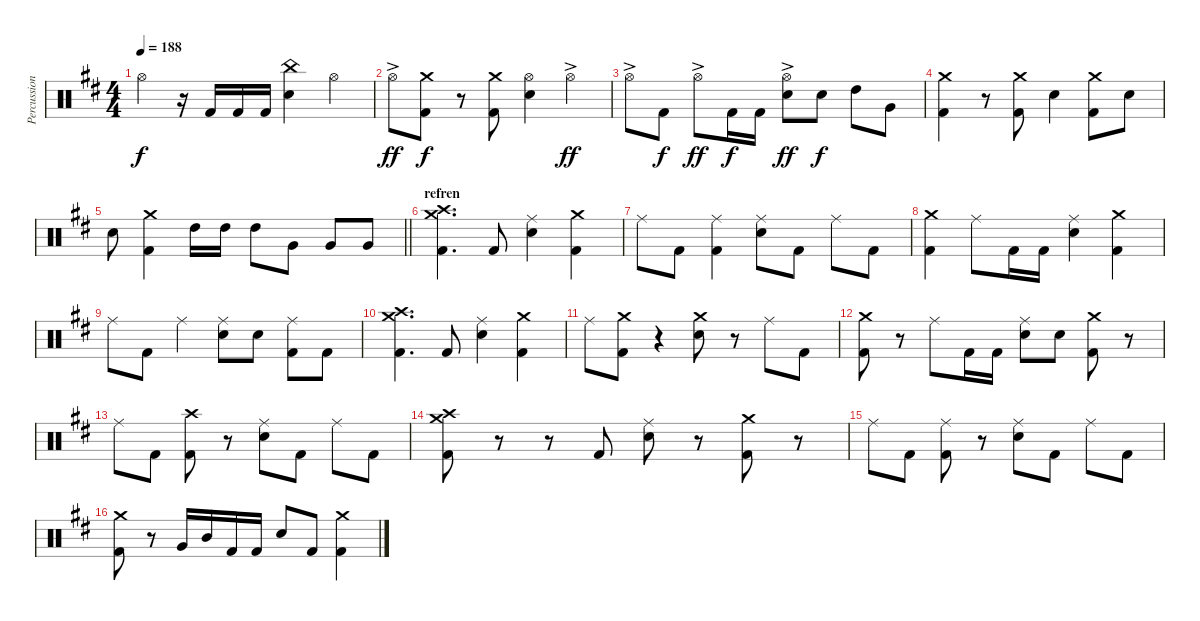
\track ("Percussion" "Percussion") {instrument percussion}
\staff {score}
\articulation defaults
\ts (4 4)
\tempo 188
\clef neutral
\ks bminor "Hi-Hat (open)".4{dy f}
r.16 "Kick (hit) 2".16 "Kick (hit) 2".16 "Kick (hit) 2".16 ("Electric Snare (hit)" "China (hit)").4 "Hi-Hat (open)".4 |
"Hi-Hat (open)"{ac}.8{dy ff} ("Kick (hit) 2" "Crash medium (hit)").8{dy f} r.8 ("Kick (hit) 2" "Crash medium (hit)").8 ("Electric Snare (hit)" "Hi-Hat (open)").4 "Hi-Hat (open)"{ac}.4{dy ff} |
"Hi-Hat (open)"{ac}.8 "Kick (hit) 2".8{dy f} "Hi-Hat (open)"{ac}.8{dy ff} "Kick (hit) 2".16{dy f} "Kick (hit) 2".16 ("Electric Snare (hit)" "Hi-Hat (open)"{ac}).8{dy ff} "Electric Snare (hit)".8{dy f} "High Tom (hit)".8 "Very Low Tom (hit)".8 |
("Kick (hit) 2" "Crash medium (hit)").4 r.8 ("Crash medium (hit)" "Kick (hit) 2").8 "Electric Snare (hit)".4 ("Kick (hit) 2" "Crash medium (hit)").8 "Electric Snare (hit)".8 |
\barLineRight lightlight "Electric Snare (hit)".8
("Kick (hit) 2" "Crash medium (hit)").4 "High Tom (hit)".16 "High Tom (hit)".16 "High Tom (hit)".8 "Very Low Tom (hit)".8 "Very Low Tom (hit)".8 "Very Low Tom (hit)".8 |
\section ("" "refren")
("Crash medium (hit)" "Kick (hit) 2" "Crash high (hit)").4{d} "Kick (hit) 2".8 ("Ride (middle)" "Electric Snare (hit)").4 ("Crash medium (hit)" "Kick (hit) 2").4 |
"Ride (middle)".8 "Kick (hit) 2".8 ("Ride (middle)" "Kick (hit) 2").4 ("Ride (middle)" "Electric Snare (hit)").8 "Kick (hit) 2".8 "Ride (middle)".8 "Kick (hit) 2".8 |
("Crash medium (hit)" "Kick (hit) 2").4 "Ride (middle)".8 "Kick (hit) 2".16 "Kick (hit) 2".16 ("Ride (middle)" "Electric Snare (hit)").4 ("Crash medium (hit)" "Kick (hit) 2").4 |
"Ride (middle)".8 "Kick (hit) 2".8 "Ride (middle)".4 ("Ride (middle)" "Electric Snare (hit)").8 "Electric Snare (hit)".8 ("Ride (middle)" "Kick (hit) 2").8 "Kick (hit) 2".8 |
("Crash medium (hit)" "Kick (hit) 2" "Crash high (hit)").4{d} "Kick (hit) 2".8 ("Ride (middle)" "Electric Snare (hit)").4 ("Crash medium (hit)" "Kick (hit) 2").4 |
"Ride (middle)".8 ("Kick (hit) 2" "Crash medium (hit)").8 r.4 ("Crash medium (hit)" "Electric Snare (hit)").8 r.8 "Ride (middle)".8 "Kick (hit) 2".8 |
("Crash medium (hit)" "Kick (hit) 2").8 r.8 "Ride (middle)".8 "Kick (hit) 2".16 "Kick (hit) 2".16 ("Ride (middle)" "Electric Snare (hit)").8 "Electric Snare (hit)".8 ("Crash medium (hit)" "Kick (hit) 2").8 r.8 |
"Ride (middle)".8 "Kick (hit) 2".8 ("Crash high (hit)" "Kick (hit) 2").8 r.8 ("Ride (middle)" "Electric Snare (hit)").8 "Kick (hit) 2".8 "Ride (middle)".8 "Kick (hit) 2".8 |
("Crash medium (hit)" "Kick (hit) 2" "Crash high (hit)").8 r.8 r.8 "Kick (hit) 2".8 ("Ride (middle)" "Electric Snare (hit)").8 r.8 ("Crash medium (hit)" "Kick (hit) 2").8 r.8 |
"Ride (middle)".8 "Kick (hit) 2".8 ("Ride (middle)" "Kick (hit) 2").8 r.8 ("Ride (middle)" "Electric Snare (hit)").8 "Kick (hit) 2".8 "Ride (middle)".8 "Kick (hit) 2".8 |
("Crash medium (hit)" "Kick (hit) 2").8 r.8 "Very Low Tom (hit)".16 "Mid Tom (hit)".16 "Kick (hit) 2".16 "Kick (hit) 2".16 "Electric Snare (hit)".8 "Kick (hit) 2".8 ("Kick (hit) 2" "Crash medium (hit)").4
